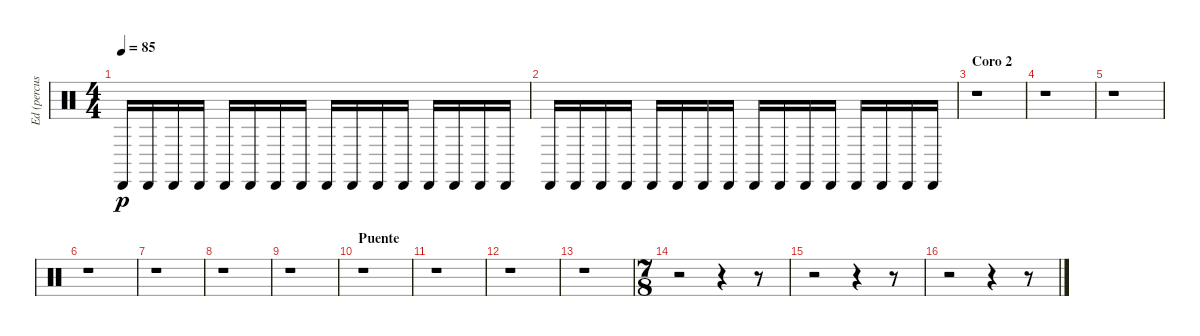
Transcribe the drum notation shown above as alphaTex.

\track ("Ed (percusion)" "Ed (percus") {instrument percussion}
\staff {score}
\articulation defaults
\ts (4 4)
\tempo 85
\clef neutral
\ks c "Cabasa (hit)".16{dy p} "Cabasa (hit)".16 "Cabasa (hit)".16 "Cabasa (hit)".16 "Cabasa (hit)".16 "Cabasa (hit)".16 "Cabasa (hit)".16 "Cabasa (hit)".16 "Cabasa (hit)".16 "Cabasa (hit)".16 "Cabasa (hit)".16 "Cabasa (hit)".16 "Cabasa (hit)".16 "Cabasa (hit)".16 "Cabasa (hit)".16 "Cabasa (hit)".16
|
"Cabasa (hit)".16 "Cabasa (hit)".16 "Cabasa (hit)".16 "Cabasa (hit)".16 "Cabasa (hit)".16 "Cabasa (hit)".16 "Cabasa (hit)".16 "Cabasa (hit)".16 "Cabasa (hit)".16 "Cabasa (hit)".16 "Cabasa (hit)".16 "Cabasa (hit)".16 "Cabasa (hit)".16 "Cabasa (hit)".16 "Cabasa (hit)".16 "Cabasa (hit)".16 |
\section ("" "Coro 2")
r.1 |
r.1 |
r.1 |
r.1 |
r.1 |
r.1 |
r.1 |
\section ("" "Puente")
r.1 |
r.1 |
r.1 |
r.1 |
\ts (7 8)
r.2 r.4 r.8 |
r.2 r.4 r.8 |
r.2 r.4 r.8
